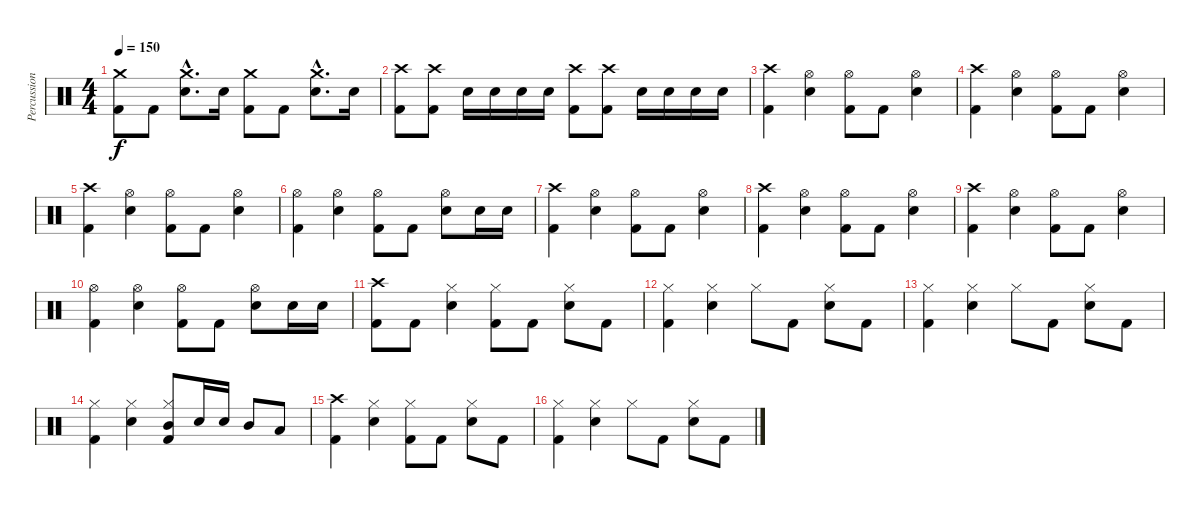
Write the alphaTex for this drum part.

\track ("Percussion" "Percussion") {instrument percussion}
\staff {score}
\articulation defaults
\ts (4 4)
\tempo 150
\clef neutral
\ks c
("Crash medium (hit)" "Kick (hit) 2").8{dy f} "Kick (hit) 2".8 ("Crash medium (hit)"{hac} "Snare (hit) 2"{hac}).8{d} "Snare (hit) 2".16 ("Crash medium (hit)" "Kick (hit) 2").8 "Kick (hit) 2".8 ("Crash medium (hit)"{hac} "Snare (hit) 2"{hac}).8{d} "Snare (hit) 2".16 |
("Crash high (hit)" "Kick (hit) 2").8 ("Crash high (hit)" "Kick (hit) 2").8 "Snare (hit) 2".16 "Snare (hit) 2".16 "Snare (hit) 2".16 "Snare (hit) 2".16 ("Crash high (hit)" "Kick (hit) 2").8 ("Crash high (hit)" "Kick (hit) 2").8 "Snare (hit) 2".16 "Snare (hit) 2".16 "Snare (hit) 2".16 "Snare (hit) 2".16 |
("Crash high (hit)" "Kick (hit) 2").4 ("Hi-Hat (open)" "Snare (hit) 2").4 ("Hi-Hat (open)" "Kick (hit) 2").8 "Kick (hit) 2".8 ("Hi-Hat (open)" "Snare (hit) 2").4 |
("Crash high (hit)" "Kick (hit) 2").4 ("Hi-Hat (open)" "Snare (hit) 2").4 ("Hi-Hat (open)" "Kick (hit) 2").8 "Kick (hit) 2".8 ("Hi-Hat (open)" "Snare (hit) 2").4 |
("Crash high (hit)" "Kick (hit) 2").4 ("Hi-Hat (open)" "Snare (hit) 2").4 ("Hi-Hat (open)" "Kick (hit) 2").8 "Kick (hit) 2".8 ("Hi-Hat (open)" "Snare (hit) 2").4 |
("Hi-Hat (open)" "Kick (hit) 2").4 ("Hi-Hat (open)" "Snare (hit) 2").4 ("Hi-Hat (open)" "Kick (hit) 2").8 "Kick (hit) 2".8 ("Hi-Hat (open)" "Snare (hit) 2").8 "Snare (hit) 2".16 "Snare (hit) 2".16 |
("Crash high (hit)" "Kick (hit) 2").4 ("Hi-Hat (open)" "Snare (hit) 2").4 ("Hi-Hat (open)" "Kick (hit) 2").8 "Kick (hit) 2".8 ("Hi-Hat (open)" "Snare (hit) 2").4 |
("Crash high (hit)" "Kick (hit) 2").4 ("Hi-Hat (open)" "Snare (hit) 2").4 ("Hi-Hat (open)" "Kick (hit) 2").8 "Kick (hit) 2".8 ("Hi-Hat (open)" "Snare (hit) 2").4 |
("Crash high (hit)" "Kick (hit) 2").4 ("Hi-Hat (open)" "Snare (hit) 2").4 ("Hi-Hat (open)" "Kick (hit) 2").8 "Kick (hit) 2".8 ("Hi-Hat (open)" "Snare (hit) 2").4 |
("Hi-Hat (open)" "Kick (hit) 2").4 ("Hi-Hat (open)" "Snare (hit) 2").4 ("Hi-Hat (open)" "Kick (hit) 2").8 "Kick (hit) 2".8 ("Hi-Hat (open)" "Snare (hit) 2").8 "Snare (hit) 2".16 "Snare (hit) 2".16 |
("Crash high (hit)" "Kick (hit) 2").8 "Kick (hit) 2".8 ("Hi-Hat (closed)" "Snare (hit) 2").4 ("Hi-Hat (closed)" "Kick (hit) 2").8 "Kick (hit) 2".8 ("Hi-Hat (closed)" "Snare (hit) 2").8 "Kick (hit) 2".8 |
("Hi-Hat (closed)" "Kick (hit) 2").4 ("Hi-Hat (closed)" "Snare (hit) 2").4 "Hi-Hat (closed)".8 "Kick (hit) 2".8 ("Hi-Hat (closed)" "Snare (hit) 2").8 "Kick (hit) 2".8 |
("Hi-Hat (closed)" "Kick (hit) 2").4 ("Hi-Hat (closed)" "Snare (hit) 2").4 "Hi-Hat (closed)".8 "Kick (hit) 2".8 ("Hi-Hat (closed)" "Snare (hit) 2").8 "Kick (hit) 2".8 |
("Hi-Hat (closed)" "Kick (hit) 2").4 ("Hi-Hat (closed)" "Snare (hit) 2").4 ("Hi-Hat (closed)" "Mid Tom (hit)" "Kick (hit) 2").8 "Snare (hit) 2".16 "Snare (hit) 2".16 "Mid Tom (hit)".8 "Low Floor Tom (hit)".8 |
("Crash high (hit)" "Kick (hit) 2").4 ("Hi-Hat (closed)" "Snare (hit) 2").4 ("Hi-Hat (closed)" "Kick (hit) 2").8 "Kick (hit) 2".8 ("Hi-Hat (closed)" "Snare (hit) 2").8 "Kick (hit) 2".8 |
("Hi-Hat (closed)" "Kick (hit) 2").4 ("Hi-Hat (closed)" "Snare (hit) 2").4 "Hi-Hat (closed)".8 "Kick (hit) 2".8 ("Hi-Hat (closed)" "Snare (hit) 2").8 "Kick (hit) 2".8
